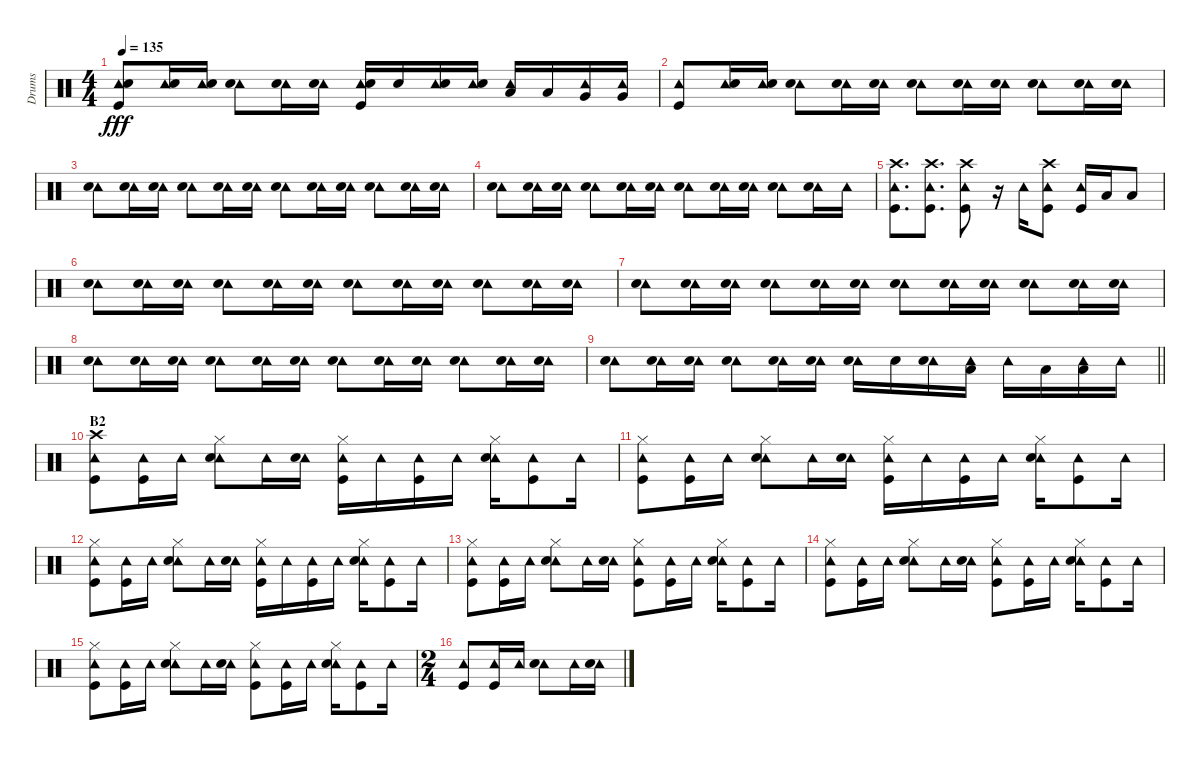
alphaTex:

\track ("Drums" "Drums") {instrument percussion}
\staff {score}
\articulation defaults
\ts (4 4)
\tempo 135
\clef neutral
\ks c
("Tambourine (hit)" "Snare (hit) 2" "Kick (hit)").8{dy fff} ("Tambourine (hit)" "Snare (hit) 2").16 ("Tambourine (hit)" "Snare (hit) 2").16 ("Tambourine (hit)" "Snare (hit) 2").8 ("Tambourine (hit)" "Snare (hit) 2").16 ("Tambourine (hit)" "Snare (hit) 2").16 ("Tambourine (hit)" "Snare (hit) 2" "Kick (hit)").16 "Snare (hit) 2".16 ("Tambourine (hit)" "Snare (hit) 2").16 ("Tambourine (hit)" "Snare (hit) 2").16 ("Tambourine (hit)" "Low Tom (hit)").16 "Low Tom (hit)".16 ("Tambourine (hit)" "Very Low Tom (hit)").16 ("Tambourine (hit)" "Very Low Tom (hit)").16 |
("Tambourine (hit)" "Kick (hit)").8 ("Tambourine (hit)" "Snare (hit) 2").16 ("Tambourine (hit)" "Snare (hit) 2").16 ("Tambourine (hit)" "Snare (hit) 2").8 ("Tambourine (hit)" "Snare (hit) 2").16 ("Tambourine (hit)" "Snare (hit) 2").16 ("Tambourine (hit)" "Snare (hit) 2").8 ("Tambourine (hit)" "Snare (hit) 2").16 ("Tambourine (hit)" "Snare (hit) 2").16 ("Tambourine (hit)" "Snare (hit) 2").8 ("Tambourine (hit)" "Snare (hit) 2").16 ("Tambourine (hit)" "Snare (hit) 2").16 |
("Tambourine (hit)" "Snare (hit) 2").8 ("Tambourine (hit)" "Snare (hit) 2").16 ("Tambourine (hit)" "Snare (hit) 2").16 ("Tambourine (hit)" "Snare (hit) 2").8 ("Tambourine (hit)" "Snare (hit) 2").16 ("Tambourine (hit)" "Snare (hit) 2").16 ("Tambourine (hit)" "Snare (hit) 2").8 ("Tambourine (hit)" "Snare (hit) 2").16 ("Tambourine (hit)" "Snare (hit) 2").16 ("Tambourine (hit)" "Snare (hit) 2").8 ("Tambourine (hit)" "Snare (hit) 2").16 ("Tambourine (hit)" "Snare (hit) 2").16 |
("Tambourine (hit)" "Snare (hit) 2").8 ("Tambourine (hit)" "Snare (hit) 2").16 ("Tambourine (hit)" "Snare (hit) 2").16 ("Tambourine (hit)" "Snare (hit) 2").8 ("Tambourine (hit)" "Snare (hit) 2").16 ("Tambourine (hit)" "Snare (hit) 2").16 ("Tambourine (hit)" "Snare (hit) 2").8 ("Tambourine (hit)" "Snare (hit) 2").16 ("Tambourine (hit)" "Snare (hit) 2").16 ("Tambourine (hit)" "Snare (hit) 2").8 ("Tambourine (hit)" "Snare (hit) 2").16 "Tambourine (hit)".16 |
("Crash high (hit)" "Tambourine (hit)" "Kick (hit)").8{d} ("Crash high (hit)" "Tambourine (hit)" "Kick (hit)").8{d} ("Crash high (hit)" "Tambourine (hit)" "Kick (hit)").8 r.16 "Tambourine (hit)".16 ("Crash high (hit)" "Tambourine (hit)" "Kick (hit)").8 ("Tambourine (hit)" "Kick (hit)").16 "Low Tom (hit)".16 "Low Tom (hit)".8 |
("Tambourine (hit)" "Snare (hit) 2").8 ("Tambourine (hit)" "Snare (hit) 2").16 ("Tambourine (hit)" "Snare (hit) 2").16 ("Tambourine (hit)" "Snare (hit) 2").8 ("Tambourine (hit)" "Snare (hit) 2").16 ("Tambourine (hit)" "Snare (hit) 2").16 ("Tambourine (hit)" "Snare (hit) 2").8 ("Tambourine (hit)" "Snare (hit) 2").16 ("Tambourine (hit)" "Snare (hit) 2").16 ("Tambourine (hit)" "Snare (hit) 2").8 ("Tambourine (hit)" "Snare (hit) 2").16 ("Tambourine (hit)" "Snare (hit) 2").16 |
("Tambourine (hit)" "Snare (hit) 2").8 ("Tambourine (hit)" "Snare (hit) 2").16 ("Tambourine (hit)" "Snare (hit) 2").16 ("Tambourine (hit)" "Snare (hit) 2").8 ("Tambourine (hit)" "Snare (hit) 2").16 ("Tambourine (hit)" "Snare (hit) 2").16 ("Tambourine (hit)" "Snare (hit) 2").8 ("Tambourine (hit)" "Snare (hit) 2").16 ("Tambourine (hit)" "Snare (hit) 2").16 ("Tambourine (hit)" "Snare (hit) 2").8 ("Tambourine (hit)" "Snare (hit) 2").16 ("Tambourine (hit)" "Snare (hit) 2").16 |
("Tambourine (hit)" "Snare (hit) 2").8 ("Tambourine (hit)" "Snare (hit) 2").16 ("Tambourine (hit)" "Snare (hit) 2").16 ("Tambourine (hit)" "Snare (hit) 2").8 ("Tambourine (hit)" "Snare (hit) 2").16 ("Tambourine (hit)" "Snare (hit) 2").16 ("Tambourine (hit)" "Snare (hit) 2").8 ("Tambourine (hit)" "Snare (hit) 2").16 ("Tambourine (hit)" "Snare (hit) 2").16 ("Tambourine (hit)" "Snare (hit) 2").8 ("Tambourine (hit)" "Snare (hit) 2").16 ("Tambourine (hit)" "Snare (hit) 2").16 |
\barLineRight lightlight
("Tambourine (hit)" "Snare (hit) 2").8 ("Tambourine (hit)" "Snare (hit) 2").16 ("Tambourine (hit)" "Snare (hit) 2").16 ("Tambourine (hit)" "Snare (hit) 2").8 ("Tambourine (hit)" "Snare (hit) 2").16 ("Tambourine (hit)" "Snare (hit) 2").16 ("Tambourine (hit)" "Snare (hit) 2").16 "Snare (hit) 2".16 ("Tambourine (hit)" "Snare (hit) 2").16 ("Tambourine (hit)" "Low Tom (hit)").16 "Tambourine (hit)".16 "Low Tom (hit)".16 ("Tambourine (hit)" "Low Tom (hit)").16 "Tambourine (hit)".16 |
\section ("" "B2")
("Crash high (hit)" "Tambourine (hit)" "Kick (hit)").8 ("Tambourine (hit)" "Kick (hit)").16 "Tambourine (hit)".16 ("Hi-Hat (closed)" "Tambourine (hit)" "Snare (hit) 2").8 "Tambourine (hit)".16 ("Tambourine (hit)" "Snare (hit) 2").16 ("Hi-Hat (closed)" "Tambourine (hit)" "Kick (hit)").16 "Tambourine (hit)".16 ("Tambourine (hit)" "Kick (hit)").16 "Tambourine (hit)".16 ("Hi-Hat (closed)" "Tambourine (hit)" "Snare (hit) 2").16 ("Tambourine (hit)" "Kick (hit)").8 "Tambourine (hit)".16 |
("Hi-Hat (closed)" "Tambourine (hit)" "Kick (hit)").8 ("Tambourine (hit)" "Kick (hit)").16 "Tambourine (hit)".16 ("Hi-Hat (closed)" "Tambourine (hit)" "Snare (hit) 2").8 "Tambourine (hit)".16 ("Tambourine (hit)" "Snare (hit) 2").16 ("Hi-Hat (closed)" "Tambourine (hit)" "Kick (hit)").16 "Tambourine (hit)".16 ("Tambourine (hit)" "Kick (hit)").16 "Tambourine (hit)".16 ("Hi-Hat (closed)" "Tambourine (hit)" "Snare (hit) 2").16 ("Tambourine (hit)" "Kick (hit)").8 "Tambourine (hit)".16 |
("Hi-Hat (closed)" "Tambourine (hit)" "Kick (hit)").8 ("Tambourine (hit)" "Kick (hit)").16 "Tambourine (hit)".16 ("Hi-Hat (closed)" "Tambourine (hit)" "Snare (hit) 2").8 "Tambourine (hit)".16 ("Tambourine (hit)" "Snare (hit) 2").16 ("Hi-Hat (closed)" "Tambourine (hit)" "Kick (hit)").16 "Tambourine (hit)".16 ("Tambourine (hit)" "Kick (hit)").16 "Tambourine (hit)".16 ("Hi-Hat (closed)" "Tambourine (hit)" "Snare (hit) 2").16 ("Tambourine (hit)" "Kick (hit)").8 "Tambourine (hit)".16 |
("Hi-Hat (closed)" "Tambourine (hit)" "Kick (hit)").8 ("Tambourine (hit)" "Kick (hit)").16 "Tambourine (hit)".16 ("Hi-Hat (closed)" "Tambourine (hit)" "Snare (hit) 2").8 "Tambourine (hit)".16 ("Tambourine (hit)" "Snare (hit) 2").16 ("Hi-Hat (closed)" "Tambourine (hit)" "Kick (hit)").8 ("Tambourine (hit)" "Kick (hit)").16 "Tambourine (hit)".16 ("Hi-Hat (closed)" "Tambourine (hit)" "Snare (hit) 2").16 ("Tambourine (hit)" "Kick (hit)").8 "Tambourine (hit)".16 |
("Hi-Hat (closed)" "Tambourine (hit)" "Kick (hit)").8 ("Tambourine (hit)" "Kick (hit)").16 "Tambourine (hit)".16 ("Hi-Hat (closed)" "Tambourine (hit)" "Snare (hit) 2").8 "Tambourine (hit)".16 ("Tambourine (hit)" "Snare (hit) 2").16 ("Hi-Hat (closed)" "Tambourine (hit)" "Kick (hit)").8 ("Tambourine (hit)" "Kick (hit)").16 "Tambourine (hit)".16 ("Hi-Hat (closed)" "Tambourine (hit)" "Snare (hit) 2").16 ("Tambourine (hit)" "Kick (hit)").8 "Tambourine (hit)".16 |
("Hi-Hat (closed)" "Tambourine (hit)" "Kick (hit)").8 ("Tambourine (hit)" "Kick (hit)").16 "Tambourine (hit)".16 ("Hi-Hat (closed)" "Tambourine (hit)" "Snare (hit) 2").8 "Tambourine (hit)".16 ("Tambourine (hit)" "Snare (hit) 2").16 ("Hi-Hat (closed)" "Tambourine (hit)" "Kick (hit)").8 ("Tambourine (hit)" "Kick (hit)").16 "Tambourine (hit)".16 ("Hi-Hat (closed)" "Tambourine (hit)" "Snare (hit) 2").16 ("Tambourine (hit)" "Kick (hit)").8 "Tambourine (hit)".16 |
\ts (2 4)
("Tambourine (hit)" "Kick (hit)").8 ("Tambourine (hit)" "Kick (hit)").16 "Tambourine (hit)".16 ("Tambourine (hit)" "Snare (hit) 2").8 "Tambourine (hit)".16 ("Tambourine (hit)" "Snare (hit) 2").16
